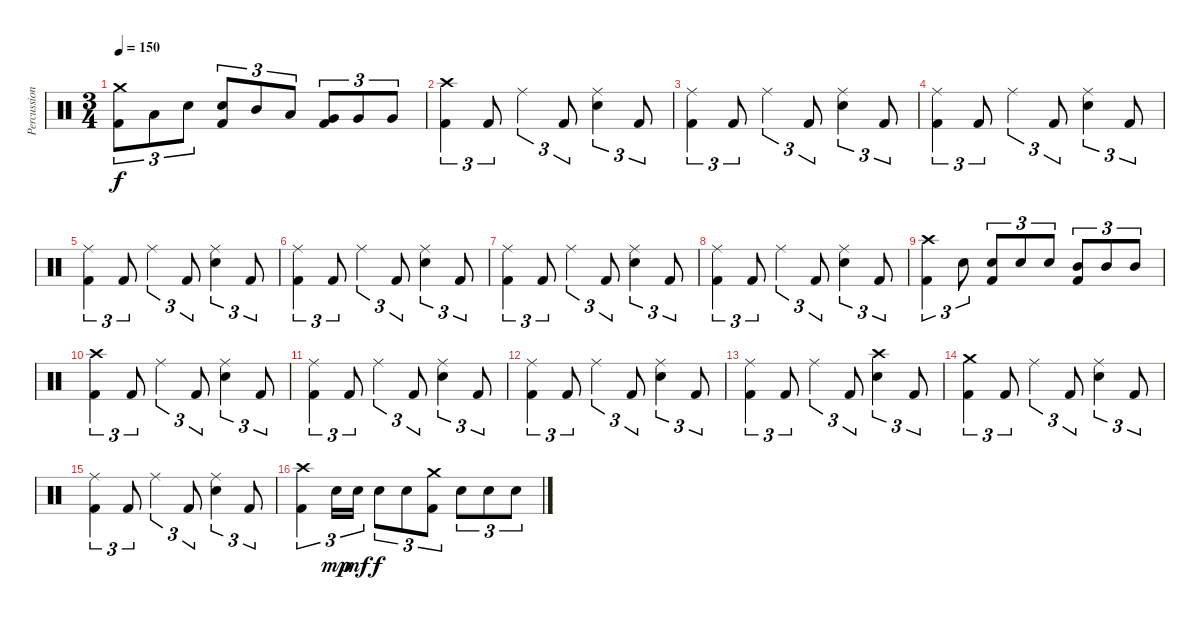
\track ("Percussion" "Percussion") {instrument percussion}
\staff {score}
\articulation defaults
\ts (3 4)
\tempo 150
\clef neutral
\ks c
("Crash medium (hit)" "Kick (hit) 2").8{tu (3 2) dy f} "Low Tom (hit)".8{tu (3 2)} "Electric Snare (hit)".8{tu (3 2)} ("Electric Snare (hit)" "Kick (hit) 2").8{tu (3 2)} "Mid Tom (hit)".8{tu (3 2)} "Low Tom (hit)".8{tu (3 2)} ("Very Low Tom (hit)" "Kick (hit) 2").8{tu (3 2)} "Very Low Tom (hit)".8{tu (3 2)} "Very Low Tom (hit)".8{tu (3 2)} |
("Crash high (hit)" "Kick (hit) 2").4{tu (3 2)} "Kick (hit) 2".8{tu (3 2)} "Ride (middle)".4{tu (3 2)} "Kick (hit) 2".8{tu (3 2)} ("Ride (middle)" "Electric Snare (hit)").4{tu (3 2)} "Kick (hit) 2".8{tu (3 2)} |
("Ride (middle)" "Kick (hit) 2").4{tu (3 2)} "Kick (hit) 2".8{tu (3 2)} "Ride (middle)".4{tu (3 2)} "Kick (hit) 2".8{tu (3 2)} ("Ride (middle)" "Electric Snare (hit)").4{tu (3 2)} "Kick (hit) 2".8{tu (3 2)} |
("Ride (middle)" "Kick (hit) 2").4{tu (3 2)} "Kick (hit) 2".8{tu (3 2)} "Ride (middle)".4{tu (3 2)} "Kick (hit) 2".8{tu (3 2)} ("Ride (middle)" "Electric Snare (hit)").4{tu (3 2)} "Kick (hit) 2".8{tu (3 2)} |
("Ride (middle)" "Kick (hit) 2").4{tu (3 2)} "Kick (hit) 2".8{tu (3 2)} "Ride (middle)".4{tu (3 2)} "Kick (hit) 2".8{tu (3 2)} ("Ride (middle)" "Electric Snare (hit)").4{tu (3 2)} "Kick (hit) 2".8{tu (3 2)} |
("Ride (middle)" "Kick (hit) 2").4{tu (3 2)} "Kick (hit) 2".8{tu (3 2)} "Ride (middle)".4{tu (3 2)} "Kick (hit) 2".8{tu (3 2)} ("Ride (middle)" "Electric Snare (hit)").4{tu (3 2)} "Kick (hit) 2".8{tu (3 2)} |
("Ride (middle)" "Kick (hit) 2").4{tu (3 2)} "Kick (hit) 2".8{tu (3 2)} "Ride (middle)".4{tu (3 2)} "Kick (hit) 2".8{tu (3 2)} ("Ride (middle)" "Electric Snare (hit)").4{tu (3 2)} "Kick (hit) 2".8{tu (3 2)} |
("Ride (middle)" "Kick (hit) 2").4{tu (3 2)} "Kick (hit) 2".8{tu (3 2)} "Ride (middle)".4{tu (3 2)} "Kick (hit) 2".8{tu (3 2)} ("Ride (middle)" "Electric Snare (hit)").4{tu (3 2)} "Kick (hit) 2".8{tu (3 2)} |
("Crash high (hit)" "Kick (hit) 2").4{tu (3 2)} "Electric Snare (hit)".8{tu (3 2)} ("Electric Snare (hit)" "Kick (hit) 2").8{tu (3 2)} "Electric Snare (hit)".8{tu (3 2)} "Electric Snare (hit)".8{tu (3 2)} ("Mid Tom (hit)" "Kick (hit) 2").8{tu (3 2)} "Mid Tom (hit)".8{tu (3 2)} "Mid Tom (hit)".8{tu (3 2)} |
("Crash high (hit)" "Kick (hit) 2").4{tu (3 2)} "Kick (hit) 2".8{tu (3 2)} "Ride (middle)".4{tu (3 2)} "Kick (hit) 2".8{tu (3 2)} ("Ride (middle)" "Electric Snare (hit)").4{tu (3 2)} "Kick (hit) 2".8{tu (3 2)} |
("Ride (middle)" "Kick (hit) 2").4{tu (3 2)} "Kick (hit) 2".8{tu (3 2)} "Ride (middle)".4{tu (3 2)} "Kick (hit) 2".8{tu (3 2)} ("Ride (middle)" "Electric Snare (hit)").4{tu (3 2)} "Kick (hit) 2".8{tu (3 2)} |
("Ride (middle)" "Kick (hit) 2").4{tu (3 2)} "Kick (hit) 2".8{tu (3 2)} "Ride (middle)".4{tu (3 2)} "Kick (hit) 2".8{tu (3 2)} ("Ride (middle)" "Electric Snare (hit)").4{tu (3 2)} "Kick (hit) 2".8{tu (3 2)} |
("Ride (middle)" "Kick (hit) 2").4{tu (3 2)} "Kick (hit) 2".8{tu (3 2)} "Ride (middle)".4{tu (3 2)} "Kick (hit) 2".8{tu (3 2)} ("Crash high (hit)" "Electric Snare (hit)").4{tu (3 2)} "Kick (hit) 2".8{tu (3 2)} |
("Crash medium (hit)" "Kick (hit) 2").4{tu (3 2)} "Kick (hit) 2".8{tu (3 2)} "Ride (middle)".4{tu (3 2)} "Kick (hit) 2".8{tu (3 2)} ("Ride (middle)" "Electric Snare (hit)").4{tu (3 2)} "Kick (hit) 2".8{tu (3 2)} |
("Ride (middle)" "Kick (hit) 2").4{tu (3 2)} "Kick (hit) 2".8{tu (3 2)} "Ride (middle)".4{tu (3 2)} "Kick (hit) 2".8{tu (3 2)} ("Ride (middle)" "Electric Snare (hit)").4{tu (3 2)} "Kick (hit) 2".8{tu (3 2)} |
("Crash high (hit)" "Kick (hit) 2").4{tu (3 2)} "Electric Snare (hit)".16{tu (3 2) dy mp} "Electric Snare (hit)".16{tu (3 2) dy mf} "Electric Snare (hit)".8{tu (3 2) dy f} "Electric Snare (hit)".8{tu (3 2)} ("Crash medium (hit)" "Kick (hit) 2").8{tu (3 2)} "Electric Snare (hit)".8{tu (3 2)} "Electric Snare (hit)".8{tu (3 2)} "Electric Snare (hit)".8{tu (3 2)}
